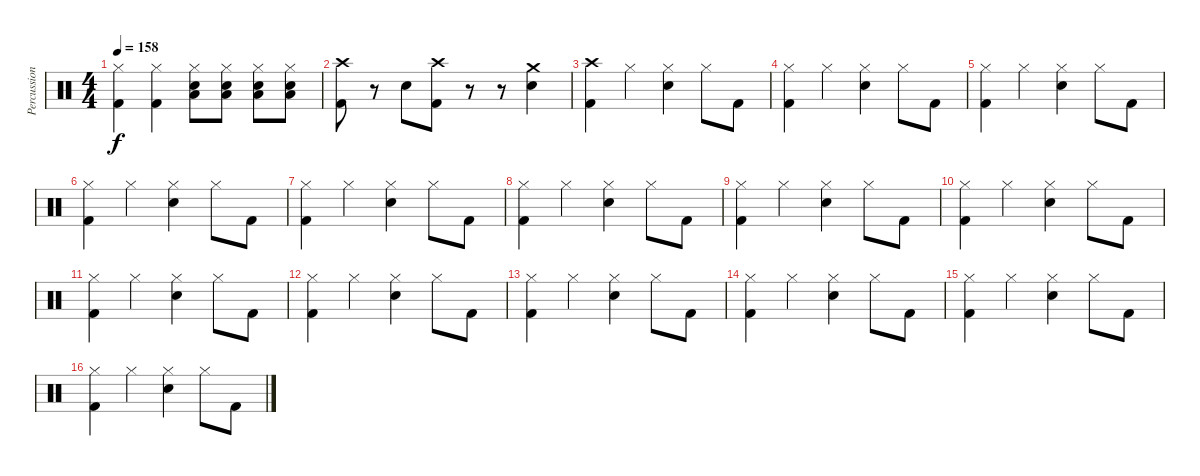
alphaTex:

\track ("Percussions" "Percussion") {instrument percussion}
\staff {score}
\articulation defaults
\ts (4 4)
\tempo 158
\clef neutral
\ks c
("Hi-Hat (closed)" "Kick (hit) 2").4{dy f} ("Hi-Hat (closed)" "Kick (hit) 2").4 ("Hi-Hat (closed)" "Snare (hit) 2" "Low Tom (hit)").8 ("Hi-Hat (closed)" "Snare (hit) 2" "Low Tom (hit)").8 ("Hi-Hat (closed)" "Snare (hit) 2" "Low Tom (hit)").8 ("Hi-Hat (closed)" "Snare (hit) 2" "Low Tom (hit)").8 |
("Crash high (hit)" "Kick (hit) 2").8 r.8 "Snare (hit) 2".8 ("Crash high (hit)" "Kick (hit) 2").8 r.8 r.8 ("Crash medium (hit)" "Snare (hit) 2").4 |
("Crash high (hit)" "Kick (hit) 2").4 "Hi-Hat (closed)".4 ("Hi-Hat (closed)" "Snare (hit) 2").4 "Hi-Hat (closed)".8 "Kick (hit) 2".8 |
("Hi-Hat (closed)" "Kick (hit) 2").4 "Hi-Hat (closed)".4 ("Hi-Hat (closed)" "Snare (hit) 2").4 "Hi-Hat (closed)".8 "Kick (hit) 2".8 |
("Hi-Hat (closed)" "Kick (hit) 2").4 "Hi-Hat (closed)".4 ("Hi-Hat (closed)" "Snare (hit) 2").4 "Hi-Hat (closed)".8 "Kick (hit) 2".8 |
("Hi-Hat (closed)" "Kick (hit) 2").4 "Hi-Hat (closed)".4 ("Hi-Hat (closed)" "Snare (hit) 2").4 "Hi-Hat (closed)".8 "Kick (hit) 2".8 |
("Hi-Hat (closed)" "Kick (hit) 2").4 "Hi-Hat (closed)".4 ("Hi-Hat (closed)" "Snare (hit) 2").4 "Hi-Hat (closed)".8 "Kick (hit) 2".8 |
("Hi-Hat (closed)" "Kick (hit) 2").4 "Hi-Hat (closed)".4 ("Hi-Hat (closed)" "Snare (hit) 2").4 "Hi-Hat (closed)".8 "Kick (hit) 2".8 |
("Hi-Hat (closed)" "Kick (hit) 2").4 "Hi-Hat (closed)".4 ("Hi-Hat (closed)" "Snare (hit) 2").4 "Hi-Hat (closed)".8 "Kick (hit) 2".8 |
("Hi-Hat (closed)" "Kick (hit) 2").4 "Hi-Hat (closed)".4 ("Hi-Hat (closed)" "Snare (hit) 2").4 "Hi-Hat (closed)".8 "Kick (hit) 2".8 |
("Hi-Hat (closed)" "Kick (hit) 2").4 "Hi-Hat (closed)".4 ("Hi-Hat (closed)" "Snare (hit) 2").4 "Hi-Hat (closed)".8 "Kick (hit) 2".8 |
("Hi-Hat (closed)" "Kick (hit) 2").4 "Hi-Hat (closed)".4 ("Hi-Hat (closed)" "Snare (hit) 2").4 "Hi-Hat (closed)".8 "Kick (hit) 2".8 |
("Hi-Hat (closed)" "Kick (hit) 2").4 "Hi-Hat (closed)".4 ("Hi-Hat (closed)" "Snare (hit) 2").4 "Hi-Hat (closed)".8 "Kick (hit) 2".8 |
("Hi-Hat (closed)" "Kick (hit) 2").4 "Hi-Hat (closed)".4 ("Hi-Hat (closed)" "Snare (hit) 2").4 "Hi-Hat (closed)".8 "Kick (hit) 2".8 |
("Hi-Hat (closed)" "Kick (hit) 2").4 "Hi-Hat (closed)".4 ("Hi-Hat (closed)" "Snare (hit) 2").4 "Hi-Hat (closed)".8 "Kick (hit) 2".8 |
("Hi-Hat (closed)" "Kick (hit) 2").4 "Hi-Hat (closed)".4 ("Hi-Hat (closed)" "Snare (hit) 2").4 "Hi-Hat (closed)".8 "Kick (hit) 2".8
